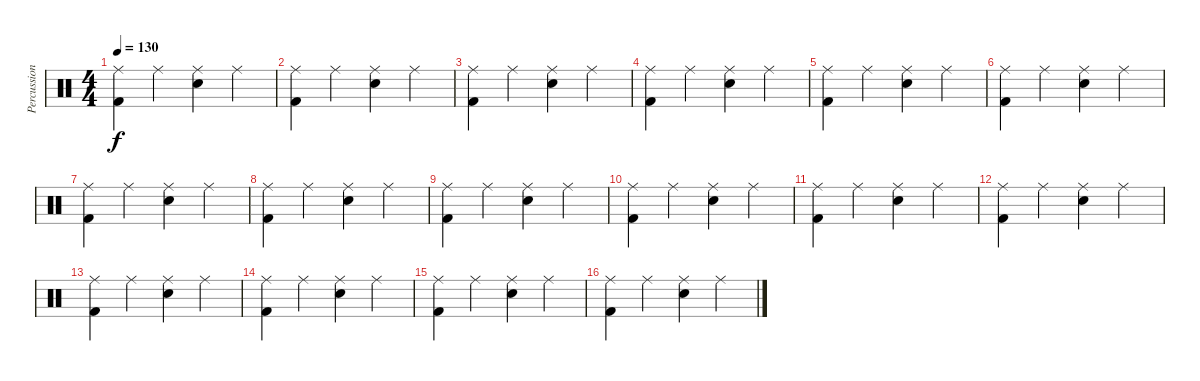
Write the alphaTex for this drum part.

\track ("Percussion" "Percussion") {instrument percussion}
\staff {score}
\articulation defaults
\ts (4 4)
\tempo 130
\clef neutral
\ks c
("Ride (middle)" "Kick (hit) 2").4{dy f} "Ride (middle)".4 ("Ride (middle)" "Snare (hit) 2").4 "Ride (middle)".4 |
("Ride (middle)" "Kick (hit) 2").4 "Ride (middle)".4 ("Ride (middle)" "Snare (hit) 2").4 "Ride (middle)".4 |
("Ride (middle)" "Kick (hit) 2").4 "Ride (middle)".4 ("Ride (middle)" "Snare (hit) 2").4 "Ride (middle)".4 |
("Ride (middle)" "Kick (hit) 2").4 "Ride (middle)".4 ("Ride (middle)" "Snare (hit) 2").4 "Ride (middle)".4 |
("Ride (middle)" "Kick (hit) 2").4 "Ride (middle)".4 ("Ride (middle)" "Snare (hit) 2").4 "Ride (middle)".4 |
("Ride (middle)" "Kick (hit) 2").4 "Ride (middle)".4 ("Ride (middle)" "Snare (hit) 2").4 "Ride (middle)".4 |
("Ride (middle)" "Kick (hit) 2").4 "Ride (middle)".4 ("Ride (middle)" "Snare (hit) 2").4 "Ride (middle)".4 |
("Ride (middle)" "Kick (hit) 2").4 "Ride (middle)".4 ("Ride (middle)" "Snare (hit) 2").4 "Ride (middle)".4 |
("Ride (middle)" "Kick (hit) 2").4 "Ride (middle)".4 ("Ride (middle)" "Snare (hit) 2").4 "Ride (middle)".4 |
("Ride (middle)" "Kick (hit) 2").4 "Ride (middle)".4 ("Ride (middle)" "Snare (hit) 2").4 "Ride (middle)".4 |
("Ride (middle)" "Kick (hit) 2").4 "Ride (middle)".4 ("Ride (middle)" "Snare (hit) 2").4 "Ride (middle)".4 |
("Ride (middle)" "Kick (hit) 2").4 "Ride (middle)".4 ("Ride (middle)" "Snare (hit) 2").4 "Ride (middle)".4 |
("Ride (middle)" "Kick (hit) 2").4 "Ride (middle)".4 ("Ride (middle)" "Snare (hit) 2").4 "Ride (middle)".4 |
("Ride (middle)" "Kick (hit) 2").4 "Ride (middle)".4 ("Ride (middle)" "Snare (hit) 2").4 "Ride (middle)".4 |
("Ride (middle)" "Kick (hit) 2").4 "Ride (middle)".4 ("Ride (middle)" "Snare (hit) 2").4 "Ride (middle)".4 |
("Ride (middle)" "Kick (hit) 2").4 "Ride (middle)".4 ("Ride (middle)" "Snare (hit) 2").4 "Ride (middle)".4
